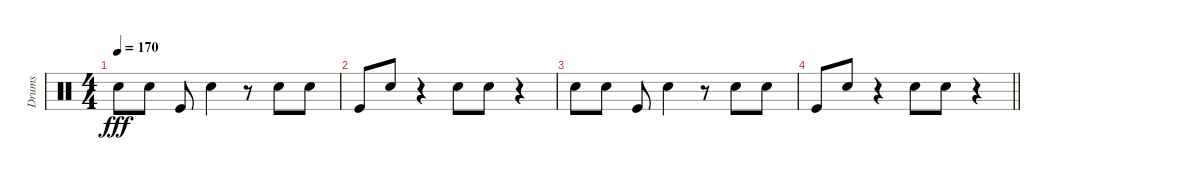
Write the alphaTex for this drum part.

\track ("Drums" "Drums") {instrument percussion}
\staff {score}
\articulation defaults
\ts (4 4)
\tempo 170
\clef neutral
\ks c "Snare (hit) 2".8{dy fff} "Snare (hit) 2".8 "Kick (hit)".8 "Snare (hit) 2".4
r.8 "Snare (hit) 2".8 "Snare (hit) 2".8 |
"Kick (hit)".8 "Snare (hit) 2".8 r.4 "Snare (hit) 2".8 "Snare (hit) 2".8 r.4 |
"Snare (hit) 2".8 "Snare (hit) 2".8 "Kick (hit)".8 "Snare (hit) 2".4 r.8 "Snare (hit) 2".8 "Snare (hit) 2".8 |
\barLineRight lightlight "Kick (hit)".8 "Snare (hit) 2".8
r.4 "Snare (hit) 2".8 "Snare (hit) 2".8 r.4
